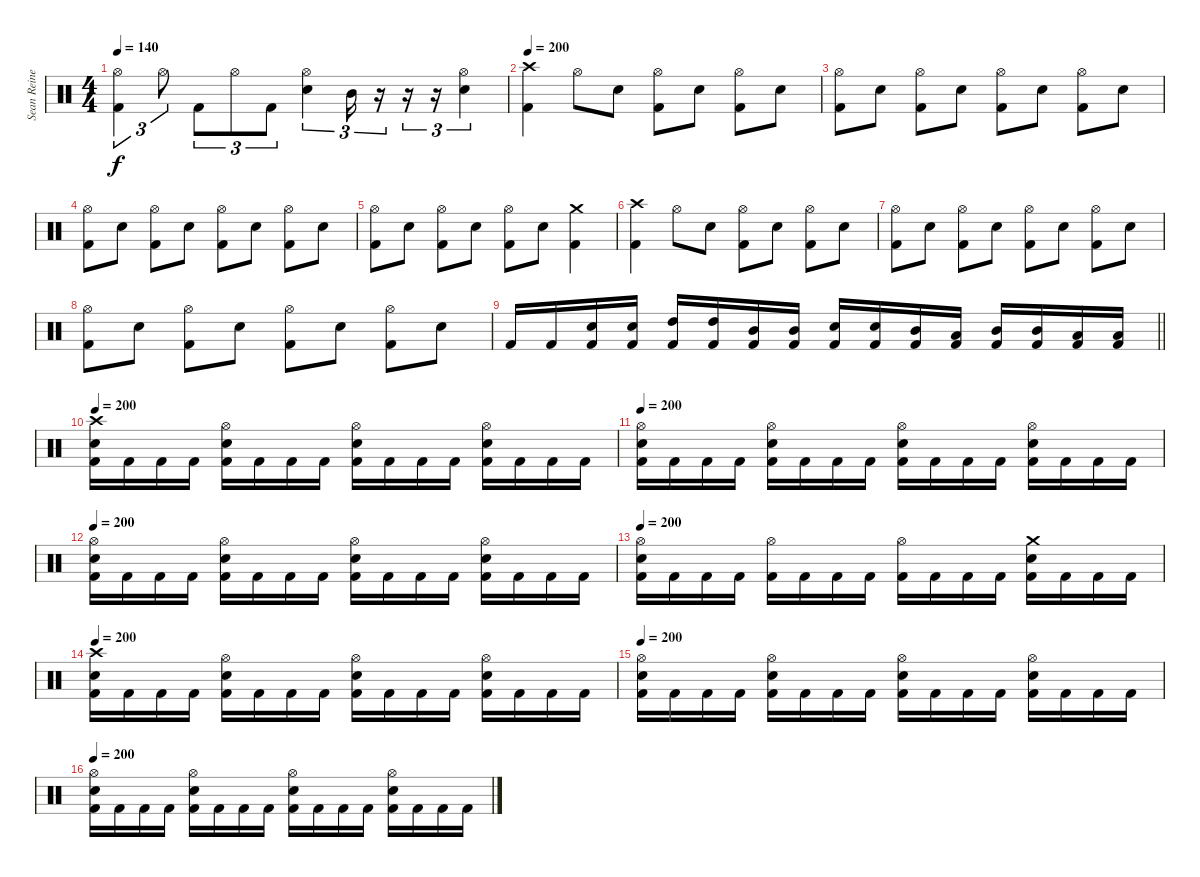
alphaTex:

\track ("Sean Reinert" "Sean Reine") {instrument percussion}
\staff {score}
\articulation defaults
\ts (4 4)
\tempo 140
\clef neutral
\ks c
("Hi-Hat (open)" "Kick (hit) 2").4{tu (3 2) dy f} "Hi-Hat (open)".8{tu (3 2)} "Kick (hit) 2".8{tu (3 2)} "Hi-Hat (open)".8{tu (3 2)} "Kick (hit) 2".8{tu (3 2)} ("Hi-Hat (open)" "Electric Snare (hit)").4{tu (3 2)} "Mid Tom (hit)".16{tu (3 2)} r.16{tu (3 2)} r.16{tu (3 2)} r.16{tu (3 2)} ("Hi-Hat (open)" "Electric Snare (hit)").4{tu (3 2)} |
\tempo 200
("Crash high (hit)" "Kick (hit) 2").4 "Hi-Hat (open)".8 "Electric Snare (hit)".8 ("Hi-Hat (open)" "Kick (hit) 2").8 "Electric Snare (hit)".8 ("Hi-Hat (open)" "Kick (hit) 2").8 "Electric Snare (hit)".8 |
("Hi-Hat (open)" "Kick (hit) 2").8 "Electric Snare (hit)".8 ("Hi-Hat (open)" "Kick (hit) 2").8 "Electric Snare (hit)".8 ("Hi-Hat (open)" "Kick (hit) 2").8 "Electric Snare (hit)".8 ("Hi-Hat (open)" "Kick (hit) 2").8 "Electric Snare (hit)".8 |
("Hi-Hat (open)" "Kick (hit) 2").8 "Electric Snare (hit)".8 ("Hi-Hat (open)" "Kick (hit) 2").8 "Electric Snare (hit)".8 ("Hi-Hat (open)" "Kick (hit) 2").8 "Electric Snare (hit)".8 ("Hi-Hat (open)" "Kick (hit) 2").8 "Electric Snare (hit)".8 |
("Hi-Hat (open)" "Kick (hit) 2").8 "Electric Snare (hit)".8 ("Hi-Hat (open)" "Kick (hit) 2").8 "Electric Snare (hit)".8 ("Hi-Hat (open)" "Kick (hit) 2").8 "Electric Snare (hit)".8 ("Crash medium (hit)" "Kick (hit) 2").4 |
("Crash high (hit)" "Kick (hit) 2").4 "Hi-Hat (open)".8 "Electric Snare (hit)".8 ("Hi-Hat (open)" "Kick (hit) 2").8 "Electric Snare (hit)".8 ("Hi-Hat (open)" "Kick (hit) 2").8 "Electric Snare (hit)".8 |
("Hi-Hat (open)" "Kick (hit) 2").8 "Electric Snare (hit)".8 ("Hi-Hat (open)" "Kick (hit) 2").8 "Electric Snare (hit)".8 ("Hi-Hat (open)" "Kick (hit) 2").8 "Electric Snare (hit)".8 ("Hi-Hat (open)" "Kick (hit) 2").8 "Electric Snare (hit)".8 |
("Hi-Hat (open)" "Kick (hit) 2").8 "Electric Snare (hit)".8 ("Hi-Hat (open)" "Kick (hit) 2").8 "Electric Snare (hit)".8 ("Hi-Hat (open)" "Kick (hit) 2").8 "Electric Snare (hit)".8 ("Hi-Hat (open)" "Kick (hit) 2").8 "Electric Snare (hit)".8 |
\barLineRight lightlight "Kick (hit) 2".16 "Kick (hit) 2".16
("Electric Snare (hit)" "Kick (hit) 2").16 ("Electric Snare (hit)" "Kick (hit) 2").16 ("High Tom (hit)" "Kick (hit) 2").16 ("High Tom (hit)" "Kick (hit) 2").16 ("Mid Tom (hit)" "Kick (hit) 2").16 ("Mid Tom (hit)" "Kick (hit) 2").16 ("Electric Snare (hit)" "Kick (hit) 2").16 ("Electric Snare (hit)" "Kick (hit) 2").16 ("Mid Tom (hit)" "Kick (hit) 2").16 ("Low Tom (hit)" "Kick (hit) 2").16 ("Mid Tom (hit)" "Kick (hit) 2").16 ("Mid Tom (hit)" "Kick (hit) 2").16 ("Low Tom (hit)" "Kick (hit) 2").16 ("Low Tom (hit)" "Kick (hit) 2").16 |
\tempo 200
("Crash high (hit)" "Electric Snare (hit)" "Kick (hit) 2").16 "Kick (hit) 2".16 "Kick (hit) 2".16 "Kick (hit) 2".16 ("Hi-Hat (open)" "Electric Snare (hit)" "Kick (hit) 2").16 "Kick (hit) 2".16 "Kick (hit) 2".16 "Kick (hit) 2".16 ("Hi-Hat (open)" "Electric Snare (hit)" "Kick (hit) 2").16 "Kick (hit) 2".16 "Kick (hit) 2".16 "Kick (hit) 2".16 ("Hi-Hat (open)" "Electric Snare (hit)" "Kick (hit) 2").16 "Kick (hit) 2".16 "Kick (hit) 2".16 "Kick (hit) 2".16 |
\tempo 200
("Hi-Hat (open)" "Electric Snare (hit)" "Kick (hit) 2").16 "Kick (hit) 2".16 "Kick (hit) 2".16 "Kick (hit) 2".16 ("Hi-Hat (open)" "Electric Snare (hit)" "Kick (hit) 2").16 "Kick (hit) 2".16 "Kick (hit) 2".16 "Kick (hit) 2".16 ("Hi-Hat (open)" "Electric Snare (hit)" "Kick (hit) 2").16 "Kick (hit) 2".16 "Kick (hit) 2".16 "Kick (hit) 2".16 ("Hi-Hat (open)" "Electric Snare (hit)" "Kick (hit) 2").16 "Kick (hit) 2".16 "Kick (hit) 2".16 "Kick (hit) 2".16 |
\tempo 200
("Hi-Hat (open)" "Electric Snare (hit)" "Kick (hit) 2").16 "Kick (hit) 2".16 "Kick (hit) 2".16 "Kick (hit) 2".16 ("Hi-Hat (open)" "Electric Snare (hit)" "Kick (hit) 2").16 "Kick (hit) 2".16 "Kick (hit) 2".16 "Kick (hit) 2".16 ("Hi-Hat (open)" "Electric Snare (hit)" "Kick (hit) 2").16 "Kick (hit) 2".16 "Kick (hit) 2".16 "Kick (hit) 2".16 ("Hi-Hat (open)" "Electric Snare (hit)" "Kick (hit) 2").16 "Kick (hit) 2".16 "Kick (hit) 2".16 "Kick (hit) 2".16 |
\tempo 200
("Hi-Hat (open)" "Electric Snare (hit)" "Kick (hit) 2").16 "Kick (hit) 2".16 "Kick (hit) 2".16 "Kick (hit) 2".16 ("Hi-Hat (open)" "Kick (hit) 2").16 "Kick (hit) 2".16 "Kick (hit) 2".16 "Kick (hit) 2".16 ("Hi-Hat (open)" "Kick (hit) 2").16 "Kick (hit) 2".16 "Kick (hit) 2".16 "Kick (hit) 2".16 ("Crash medium (hit)" "Electric Snare (hit)" "Kick (hit) 2").16 "Kick (hit) 2".16 "Kick (hit) 2".16 "Kick (hit) 2".16 |
\tempo 200
("Crash high (hit)" "Electric Snare (hit)" "Kick (hit) 2").16 "Kick (hit) 2".16 "Kick (hit) 2".16 "Kick (hit) 2".16 ("Hi-Hat (open)" "Electric Snare (hit)" "Kick (hit) 2").16 "Kick (hit) 2".16 "Kick (hit) 2".16 "Kick (hit) 2".16 ("Hi-Hat (open)" "Electric Snare (hit)" "Kick (hit) 2").16 "Kick (hit) 2".16 "Kick (hit) 2".16 "Kick (hit) 2".16 ("Hi-Hat (open)" "Electric Snare (hit)" "Kick (hit) 2").16 "Kick (hit) 2".16 "Kick (hit) 2".16 "Kick (hit) 2".16 |
\tempo 200
("Hi-Hat (open)" "Electric Snare (hit)" "Kick (hit) 2").16 "Kick (hit) 2".16 "Kick (hit) 2".16 "Kick (hit) 2".16 ("Hi-Hat (open)" "Electric Snare (hit)" "Kick (hit) 2").16 "Kick (hit) 2".16 "Kick (hit) 2".16 "Kick (hit) 2".16 ("Hi-Hat (open)" "Electric Snare (hit)" "Kick (hit) 2").16 "Kick (hit) 2".16 "Kick (hit) 2".16 "Kick (hit) 2".16 ("Hi-Hat (open)" "Electric Snare (hit)" "Kick (hit) 2").16 "Kick (hit) 2".16 "Kick (hit) 2".16 "Kick (hit) 2".16 |
\tempo 200
("Hi-Hat (open)" "Electric Snare (hit)" "Kick (hit) 2").16 "Kick (hit) 2".16 "Kick (hit) 2".16 "Kick (hit) 2".16 ("Hi-Hat (open)" "Electric Snare (hit)" "Kick (hit) 2").16 "Kick (hit) 2".16 "Kick (hit) 2".16 "Kick (hit) 2".16 ("Hi-Hat (open)" "Electric Snare (hit)" "Kick (hit) 2").16 "Kick (hit) 2".16 "Kick (hit) 2".16 "Kick (hit) 2".16 ("Hi-Hat (open)" "Electric Snare (hit)" "Kick (hit) 2").16 "Kick (hit) 2".16 "Kick (hit) 2".16 "Kick (hit) 2".16
